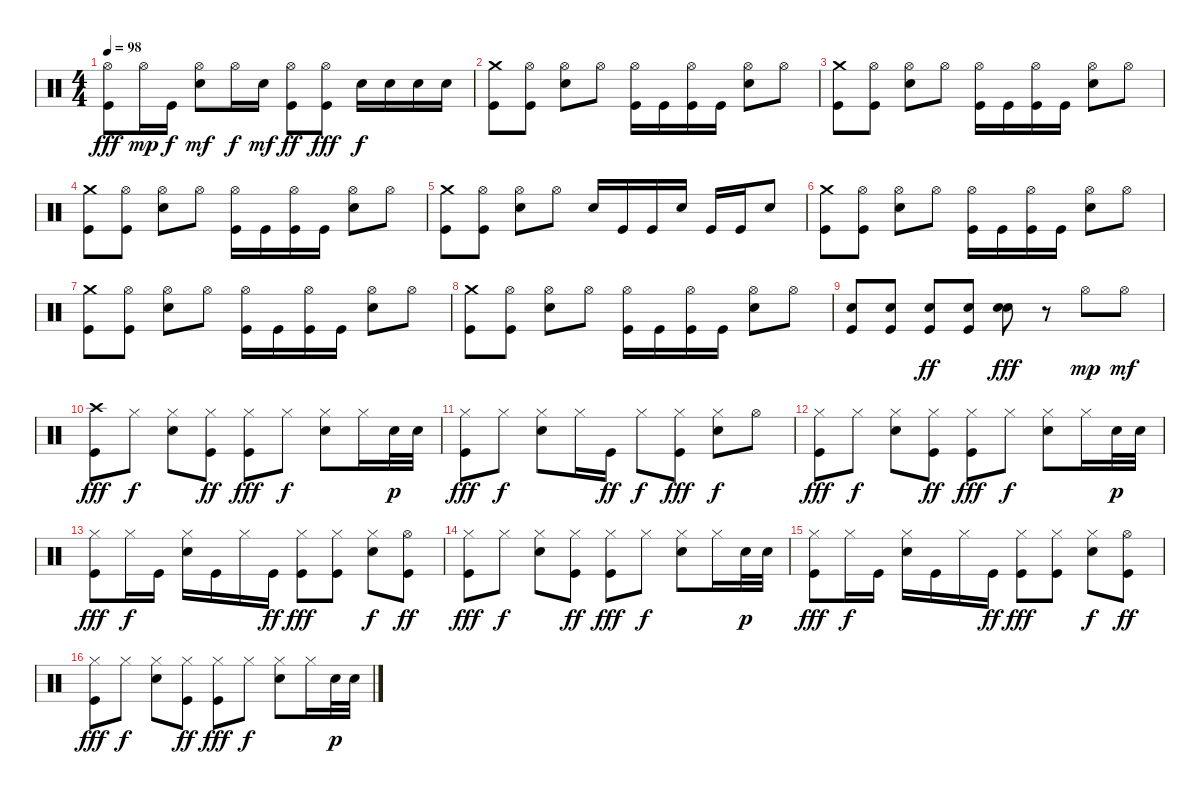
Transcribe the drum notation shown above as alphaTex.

\track "" {instrument percussion}
\staff {score}
\articulation defaults
\ts (4 4)
\tempo 98
\clef neutral
\ks c
("Hi-Hat (open)" "Kick (hit)").8{dy fff} "Hi-Hat (open)".16{dy mp} "Kick (hit)".16{dy f} ("Hi-Hat (open)" "Electric Snare (hit)").8{dy mf} "Hi-Hat (open)".16{dy f} "Electric Snare (hit)".16{dy mf} ("Kick (hit)" "Hi-Hat (open)").8{dy ff} ("Hi-Hat (open)" "Kick (hit)").8{dy fff} "Electric Snare (hit)".16{dy f} "Electric Snare (hit)".16 "Electric Snare (hit)".16 "Electric Snare (hit)".16 |
("Crash medium (hit)" "Kick (hit)").8 ("Hi-Hat (open)" "Kick (hit)").8 ("Hi-Hat (open)" "Electric Snare (hit)").8 "Hi-Hat (open)".8 ("Hi-Hat (open)" "Kick (hit)").16 "Kick (hit)".16 ("Hi-Hat (open)" "Kick (hit)").16 "Kick (hit)".16 ("Hi-Hat (open)" "Electric Snare (hit)").8 "Hi-Hat (open)".8 |
("Crash medium (hit)" "Kick (hit)").8 ("Hi-Hat (open)" "Kick (hit)").8 ("Hi-Hat (open)" "Electric Snare (hit)").8 "Hi-Hat (open)".8 ("Hi-Hat (open)" "Kick (hit)").16 "Kick (hit)".16 ("Hi-Hat (open)" "Kick (hit)").16 "Kick (hit)".16 ("Hi-Hat (open)" "Electric Snare (hit)").8 "Hi-Hat (open)".8 |
("Crash medium (hit)" "Kick (hit)").8 ("Hi-Hat (open)" "Kick (hit)").8 ("Hi-Hat (open)" "Electric Snare (hit)").8 "Hi-Hat (open)".8 ("Hi-Hat (open)" "Kick (hit)").16 "Kick (hit)".16 ("Hi-Hat (open)" "Kick (hit)").16 "Kick (hit)".16 ("Hi-Hat (open)" "Electric Snare (hit)").8 "Hi-Hat (open)".8 |
("Crash medium (hit)" "Kick (hit)").8 ("Hi-Hat (open)" "Kick (hit)").8 ("Hi-Hat (open)" "Electric Snare (hit)").8 "Hi-Hat (open)".8 "Electric Snare (hit)".16 "Kick (hit)".16 "Kick (hit)".16 "Electric Snare (hit)".16 "Kick (hit)".16 "Kick (hit)".16 "Electric Snare (hit)".8 |
("Crash medium (hit)" "Kick (hit)").8 ("Hi-Hat (open)" "Kick (hit)").8 ("Hi-Hat (open)" "Electric Snare (hit)").8 "Hi-Hat (open)".8 ("Hi-Hat (open)" "Kick (hit)").16 "Kick (hit)".16 ("Hi-Hat (open)" "Kick (hit)").16 "Kick (hit)".16 ("Hi-Hat (open)" "Electric Snare (hit)").8 "Hi-Hat (open)".8 |
("Crash medium (hit)" "Kick (hit)").8 ("Hi-Hat (open)" "Kick (hit)").8 ("Hi-Hat (open)" "Electric Snare (hit)").8 "Hi-Hat (open)".8 ("Hi-Hat (open)" "Kick (hit)").16 "Kick (hit)".16 ("Hi-Hat (open)" "Kick (hit)").16 "Kick (hit)".16 ("Hi-Hat (open)" "Electric Snare (hit)").8 "Hi-Hat (open)".8 |
("Crash medium (hit)" "Kick (hit)").8 ("Hi-Hat (open)" "Kick (hit)").8 ("Hi-Hat (open)" "Electric Snare (hit)").8 "Hi-Hat (open)".8 ("Hi-Hat (open)" "Kick (hit)").16 "Kick (hit)".16 ("Hi-Hat (open)" "Kick (hit)").16 "Kick (hit)".16 ("Hi-Hat (open)" "Electric Snare (hit)").8 "Hi-Hat (open)".8 |
("Electric Snare (hit)" "Kick (hit)").8 ("Electric Snare (hit)" "Kick (hit)").8 ("Electric Snare (hit)" "Kick (hit)").8{dy ff} ("Electric Snare (hit)" "Kick (hit)").8 ("Electric Snare (hit)" "Electric Snare (hit)").8{dy fff} r.8 "Hi-Hat (open)".8{dy mp} "Hi-Hat (open)".8{dy mf} |
("Crash high (hit)" "Kick (hit)").8{dy fff} "Hi-Hat (closed)".8{dy f} ("Hi-Hat (closed)" "Electric Snare (hit)").8 ("Hi-Hat (closed)" "Kick (hit)").8{dy ff} ("Kick (hit)" "Hi-Hat (closed)").8{dy fff} "Hi-Hat (closed)".8{dy f} ("Hi-Hat (closed)" "Electric Snare (hit)").8 "Hi-Hat (closed)".16 "Electric Snare (hit)".32{dy p} "Electric Snare (hit)".32 |
("Hi-Hat (closed)" "Kick (hit)").8{dy fff} "Hi-Hat (closed)".8{dy f} ("Hi-Hat (closed)" "Electric Snare (hit)").8 "Hi-Hat (closed)".16 "Kick (hit)".16{dy ff} "Hi-Hat (closed)".8{dy f} ("Hi-Hat (closed)" "Kick (hit)").8{dy fff} ("Hi-Hat (closed)" "Electric Snare (hit)").8{dy f} "Hi-Hat (open)".8 |
("Hi-Hat (closed)" "Kick (hit)").8{dy fff} "Hi-Hat (closed)".8{dy f} ("Hi-Hat (closed)" "Electric Snare (hit)").8 ("Hi-Hat (closed)" "Kick (hit)").8{dy ff} ("Kick (hit)" "Hi-Hat (closed)").8{dy fff} "Hi-Hat (closed)".8{dy f} ("Hi-Hat (closed)" "Electric Snare (hit)").8 "Hi-Hat (closed)".16 "Electric Snare (hit)".32{dy p} "Electric Snare (hit)".32 |
("Hi-Hat (closed)" "Kick (hit)").8{dy fff} "Hi-Hat (closed)".16{dy f} "Kick (hit)".16 ("Hi-Hat (closed)" "Electric Snare (hit)").16 "Kick (hit)".16 "Hi-Hat (closed)".16 "Kick (hit)".16{dy ff} ("Kick (hit)" "Hi-Hat (closed)").8{dy fff} ("Hi-Hat (closed)" "Kick (hit)").8 ("Hi-Hat (closed)" "Electric Snare (hit)").8{dy f} ("Hi-Hat (open)" "Kick (hit)").8{dy ff} |
("Hi-Hat (closed)" "Kick (hit)").8{dy fff} "Hi-Hat (closed)".8{dy f} ("Hi-Hat (closed)" "Electric Snare (hit)").8 ("Hi-Hat (closed)" "Kick (hit)").8{dy ff} ("Kick (hit)" "Hi-Hat (closed)").8{dy fff} "Hi-Hat (closed)".8{dy f} ("Hi-Hat (closed)" "Electric Snare (hit)").8 "Hi-Hat (closed)".16 "Electric Snare (hit)".32{dy p} "Electric Snare (hit)".32 |
("Hi-Hat (closed)" "Kick (hit)").8{dy fff} "Hi-Hat (closed)".16{dy f} "Kick (hit)".16 ("Hi-Hat (closed)" "Electric Snare (hit)").16 "Kick (hit)".16 "Hi-Hat (closed)".16 "Kick (hit)".16{dy ff} ("Kick (hit)" "Hi-Hat (closed)").8{dy fff} ("Hi-Hat (closed)" "Kick (hit)").8 ("Hi-Hat (closed)" "Electric Snare (hit)").8{dy f} ("Hi-Hat (open)" "Kick (hit)").8{dy ff} |
("Hi-Hat (closed)" "Kick (hit)").8{dy fff} "Hi-Hat (closed)".8{dy f} ("Hi-Hat (closed)" "Electric Snare (hit)").8 ("Hi-Hat (closed)" "Kick (hit)").8{dy ff} ("Kick (hit)" "Hi-Hat (closed)").8{dy fff} "Hi-Hat (closed)".8{dy f} ("Hi-Hat (closed)" "Electric Snare (hit)").8 "Hi-Hat (closed)".16 "Electric Snare (hit)".32{dy p} "Electric Snare (hit)".32
